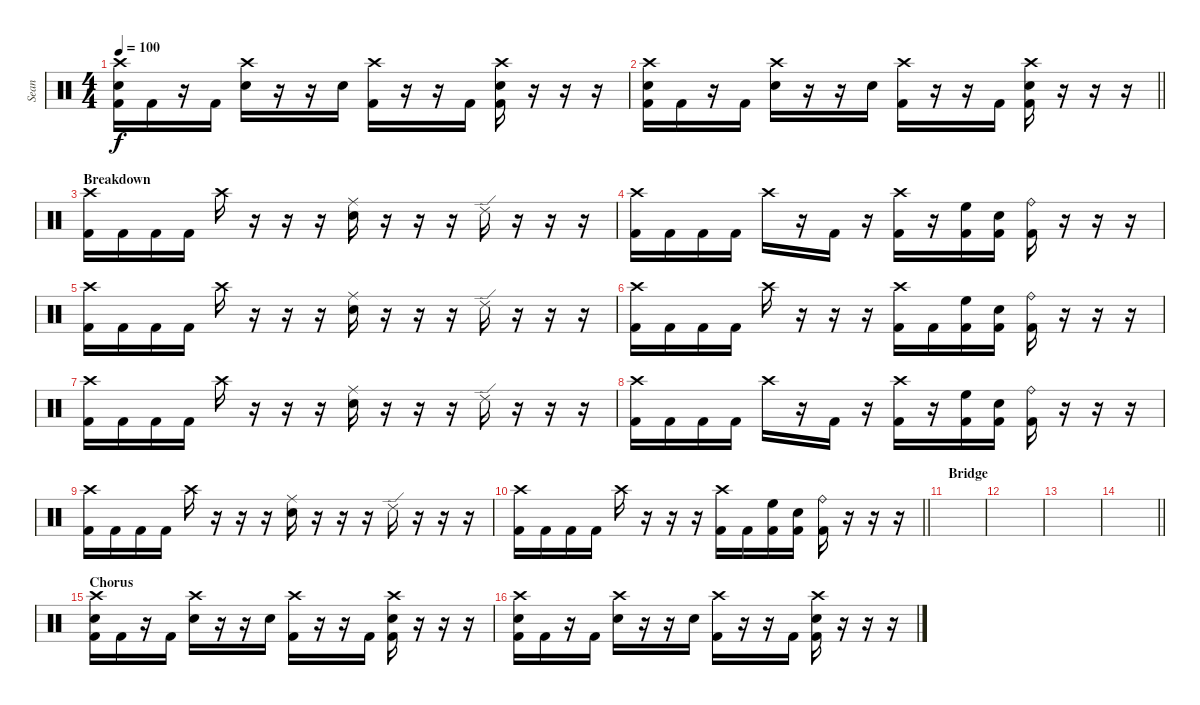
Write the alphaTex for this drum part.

\track ("Sean" "Sean") {instrument percussion}
\staff {score}
\articulation defaults
\ts (4 4)
\tempo 100
\clef neutral
\ks c
("Crash high (hit)" "Snare (hit) 2" "Kick (hit) 2").16{dy f} "Kick (hit) 2".16 r.16 "Kick (hit) 2".16 ("Crash high (hit)" "Snare (hit) 2").16 r.16 r.16 "Snare (hit) 2".16 ("Crash high (hit)" "Kick (hit) 2").16 r.16 r.16 "Kick (hit) 2".16 ("Crash high (hit)" "Snare (hit) 2" "Kick (hit) 2").16 r.16 r.16 r.16 |
\barLineRight lightlight
("Crash high (hit)" "Snare (hit) 2" "Kick (hit) 2").16 "Kick (hit) 2".16 r.16 "Kick (hit) 2".16 ("Crash high (hit)" "Snare (hit) 2").16 r.16 r.16 "Snare (hit) 2".16 ("Crash high (hit)" "Kick (hit) 2").16 r.16 r.16 "Kick (hit) 2".16 ("Crash high (hit)" "Snare (hit) 2" "Kick (hit) 2").16 r.16 r.16 r.16 |
\section ("" "Breakdown")
("Crash high (hit)" "Kick (hit) 2").16 "Kick (hit) 2".16 "Kick (hit) 2".16 "Kick (hit) 2".16 "Crash high (hit)".16 r.16 r.16 r.16 ("Ride (middle)" "Snare (hit) 2").16 r.16 r.16 r.16 "Ride (edge) 2".16 r.16 r.16 r.16 |
("Crash high (hit)" "Kick (hit) 2").16 "Kick (hit) 2".16 "Kick (hit) 2".16 "Kick (hit) 2".16 "Crash high (hit)".16 r.16 "Kick (hit) 2".16 r.16 ("Crash high (hit)" "Kick (hit) 2").16 r.16 ("High Floor Tom (hit)" "Kick (hit) 2").16 ("Snare (hit) 2" "Kick (hit) 2").16 ("Ride (bell)" "Kick (hit) 2").16 r.16 r.16 r.16 |
("Crash high (hit)" "Kick (hit) 2").16 "Kick (hit) 2".16 "Kick (hit) 2".16 "Kick (hit) 2".16 "Crash high (hit)".16 r.16 r.16 r.16 ("Ride (middle)" "Snare (hit) 2").16 r.16 r.16 r.16 "Ride (edge) 2".16 r.16 r.16 r.16 |
("Crash high (hit)" "Kick (hit) 2").16 "Kick (hit) 2".16 "Kick (hit) 2".16 "Kick (hit) 2".16 "Crash high (hit)".16 r.16 r.16 r.16 ("Crash high (hit)" "Kick (hit) 2").16 "Kick (hit) 2".16 ("High Floor Tom (hit)" "Kick (hit) 2").16 ("Snare (hit) 2" "Kick (hit) 2").16 ("Ride (bell)" "Kick (hit) 2").16 r.16 r.16 r.16 |
("Crash high (hit)" "Kick (hit) 2").16 "Kick (hit) 2".16 "Kick (hit) 2".16 "Kick (hit) 2".16 "Crash high (hit)".16 r.16 r.16 r.16 ("Ride (middle)" "Snare (hit) 2").16 r.16 r.16 r.16 "Ride (edge) 2".16 r.16 r.16 r.16 |
("Crash high (hit)" "Kick (hit) 2").16 "Kick (hit) 2".16 "Kick (hit) 2".16 "Kick (hit) 2".16 "Crash high (hit)".16 r.16 "Kick (hit) 2".16 r.16 ("Crash high (hit)" "Kick (hit) 2").16 r.16 ("High Floor Tom (hit)" "Kick (hit) 2").16 ("Snare (hit) 2" "Kick (hit) 2").16 ("Ride (bell)" "Kick (hit) 2").16 r.16 r.16 r.16 |
("Crash high (hit)" "Kick (hit) 2").16 "Kick (hit) 2".16 "Kick (hit) 2".16 "Kick (hit) 2".16 "Crash high (hit)".16 r.16 r.16 r.16 ("Ride (middle)" "Snare (hit) 2").16 r.16 r.16 r.16 "Ride (edge) 2".16 r.16 r.16 r.16 |
\barLineRight lightlight
("Crash high (hit)" "Kick (hit) 2").16 "Kick (hit) 2".16 "Kick (hit) 2".16 "Kick (hit) 2".16 "Crash high (hit)".16 r.16 r.16 r.16 ("Crash high (hit)" "Kick (hit) 2").16 "Kick (hit) 2".16 ("High Floor Tom (hit)" "Kick (hit) 2").16 ("Snare (hit) 2" "Kick (hit) 2").16 ("Ride (bell)" "Kick (hit) 2").16 r.16 r.16 r.16 |
\section ("" "Bridge")
|
|
|
\barLineRight lightlight
|
\section ("" "Chorus")
("Crash high (hit)" "Snare (hit) 2" "Kick (hit) 2").16 "Kick (hit) 2".16 r.16 "Kick (hit) 2".16 ("Crash high (hit)" "Snare (hit) 2").16 r.16 r.16 "Snare (hit) 2".16 ("Crash high (hit)" "Kick (hit) 2").16 r.16 r.16 "Kick (hit) 2".16 ("Crash high (hit)" "Snare (hit) 2" "Kick (hit) 2").16 r.16 r.16 r.16 |
("Crash high (hit)" "Snare (hit) 2" "Kick (hit) 2").16 "Kick (hit) 2".16 r.16 "Kick (hit) 2".16 ("Crash high (hit)" "Snare (hit) 2").16 r.16 r.16 "Snare (hit) 2".16 ("Crash high (hit)" "Kick (hit) 2").16 r.16 r.16 "Kick (hit) 2".16 ("Crash high (hit)" "Snare (hit) 2" "Kick (hit) 2").16 r.16 r.16 r.16
